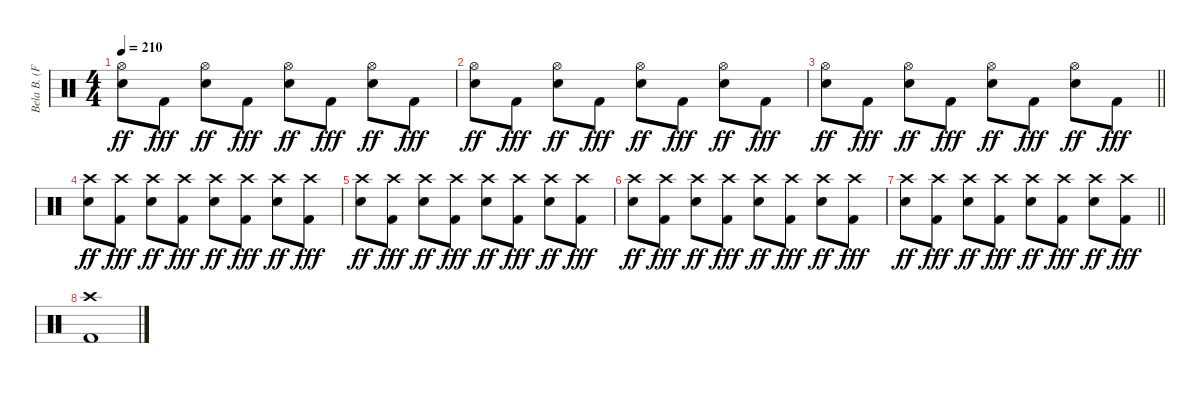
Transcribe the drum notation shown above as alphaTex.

\track ("Bela B. (Felsenheimer)" "Bela B. (F") {instrument percussion}
\staff {score}
\articulation defaults
\ts (4 4)
\tempo 210
\clef neutral
\ks c
("Hi-Hat (open)" "Electric Snare (hit)").8{dy ff} "Kick (hit) 2".8{dy fff} ("Hi-Hat (open)" "Electric Snare (hit)").8{dy ff} "Kick (hit) 2".8{dy fff} ("Hi-Hat (open)" "Electric Snare (hit)").8{dy ff} "Kick (hit) 2".8{dy fff} ("Hi-Hat (open)" "Electric Snare (hit)").8{dy ff} "Kick (hit) 2".8{dy fff} |
("Hi-Hat (open)" "Electric Snare (hit)").8{dy ff} "Kick (hit) 2".8{dy fff} ("Hi-Hat (open)" "Electric Snare (hit)").8{dy ff} "Kick (hit) 2".8{dy fff} ("Hi-Hat (open)" "Electric Snare (hit)").8{dy ff} "Kick (hit) 2".8{dy fff} ("Hi-Hat (open)" "Electric Snare (hit)").8{dy ff} "Kick (hit) 2".8{dy fff} |
\barLineRight lightlight
("Hi-Hat (open)" "Electric Snare (hit)").8{dy ff} "Kick (hit) 2".8{dy fff} ("Hi-Hat (open)" "Electric Snare (hit)").8{dy ff} "Kick (hit) 2".8{dy fff} ("Hi-Hat (open)" "Electric Snare (hit)").8{dy ff} "Kick (hit) 2".8{dy fff} ("Hi-Hat (open)" "Electric Snare (hit)").8{dy ff} "Kick (hit) 2".8{dy fff} |
("Crash high (hit)" "Electric Snare (hit)").8{dy ff} ("Crash high (hit)" "Kick (hit) 2").8{dy fff} ("Crash high (hit)" "Electric Snare (hit)").8{dy ff} ("Crash high (hit)" "Kick (hit) 2").8{dy fff} ("Crash high (hit)" "Electric Snare (hit)").8{dy ff} ("Crash high (hit)" "Kick (hit) 2").8{dy fff} ("Crash high (hit)" "Electric Snare (hit)").8{dy ff} ("Crash high (hit)" "Kick (hit) 2").8{dy fff} |
("Crash high (hit)" "Electric Snare (hit)").8{dy ff} ("Crash high (hit)" "Kick (hit) 2").8{dy fff} ("Crash high (hit)" "Electric Snare (hit)").8{dy ff} ("Crash high (hit)" "Kick (hit) 2").8{dy fff} ("Crash high (hit)" "Electric Snare (hit)").8{dy ff} ("Crash high (hit)" "Kick (hit) 2").8{dy fff} ("Crash high (hit)" "Electric Snare (hit)").8{dy ff} ("Crash high (hit)" "Kick (hit) 2").8{dy fff} |
("Crash high (hit)" "Electric Snare (hit)").8{dy ff} ("Crash high (hit)" "Kick (hit) 2").8{dy fff} ("Crash high (hit)" "Electric Snare (hit)").8{dy ff} ("Crash high (hit)" "Kick (hit) 2").8{dy fff} ("Crash high (hit)" "Electric Snare (hit)").8{dy ff} ("Crash high (hit)" "Kick (hit) 2").8{dy fff} ("Crash high (hit)" "Electric Snare (hit)").8{dy ff} ("Crash high (hit)" "Kick (hit) 2").8{dy fff} |
\barLineRight lightlight
("Crash high (hit)" "Electric Snare (hit)").8{dy ff} ("Crash high (hit)" "Kick (hit) 2").8{dy fff} ("Crash high (hit)" "Electric Snare (hit)").8{dy ff} ("Crash high (hit)" "Kick (hit) 2").8{dy fff} ("Crash high (hit)" "Electric Snare (hit)").8{dy ff} ("Crash high (hit)" "Kick (hit) 2").8{dy fff} ("Crash high (hit)" "Electric Snare (hit)").8{dy ff} ("Crash high (hit)" "Kick (hit) 2").8{dy fff} |
("Crash high (hit)" "Kick (hit) 2").1
